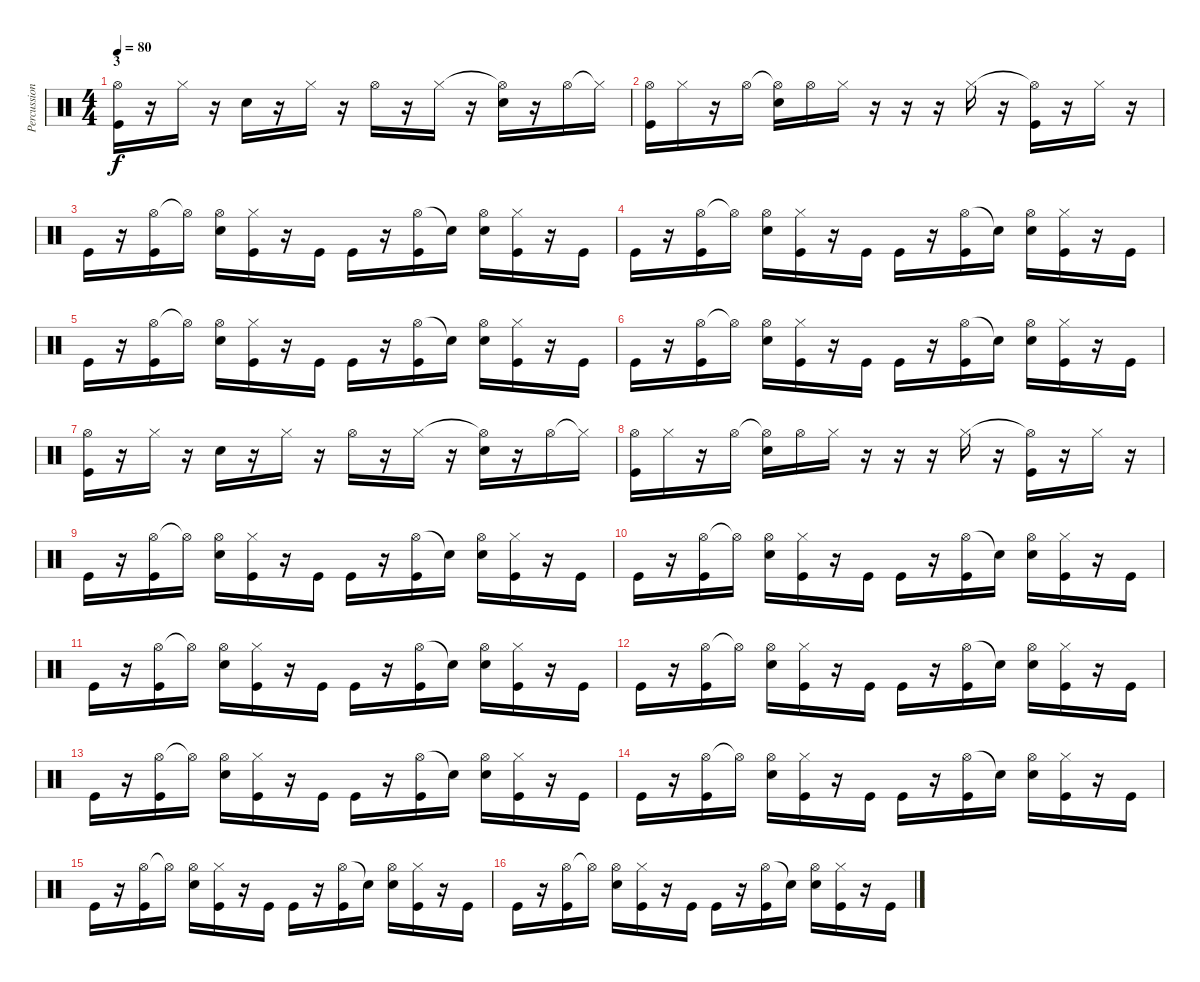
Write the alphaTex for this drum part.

\track ("Percussions" "Percussion") {instrument percussion}
\staff {score}
\articulation defaults
\ts (4 4)
\section ("" "3")
\tempo 80
\clef neutral
\ks c
("Hi-Hat (open)" "Kick (hit)").16{dy f} r.16 "Hi-Hat (closed)".16 r.16 "Electric Snare (hit)".16 r.16 "Hi-Hat (closed)".16 r.16 "Hi-Hat (open)".16 r.16 "Hi-Hat (closed)".16 r.16 ("Hi-Hat (open)"{t} "Electric Snare (hit)").16 r.16 "Hi-Hat (open)".16 "Hi-Hat (closed)"{t}.16 |
("Hi-Hat (open)" "Kick (hit)").16 "Hi-Hat (closed)".16 r.16 "Hi-Hat (open)".16 ("Hi-Hat (open)"{t} "Electric Snare (hit)").16 "Hi-Hat (open)".16 "Hi-Hat (closed)".16 r.16 r.16 r.16 "Hi-Hat (closed)".16 r.16 ("Hi-Hat (open)"{t} "Kick (hit)").16 r.16 "Hi-Hat (closed)".16 r.16 |
"Kick (hit)".16 r.16 ("Hi-Hat (open)" "Kick (hit)").16 "Hi-Hat (open)"{t}.16 ("Hi-Hat (open)" "Electric Snare (hit)").16 ("Hi-Hat (closed)" "Kick (hit)").16 r.16 "Kick (hit)".16 "Kick (hit)".16 r.16 ("Hi-Hat (open)" "Kick (hit)").16 "Snare (hit)"{t}.16 ("Hi-Hat (open)" "Electric Snare (hit)").16 ("Hi-Hat (closed)" "Kick (hit)").16 r.16 "Kick (hit)".16 |
"Kick (hit)".16 r.16 ("Hi-Hat (open)" "Kick (hit)").16 "Hi-Hat (open)"{t}.16 ("Hi-Hat (open)" "Electric Snare (hit)").16 ("Hi-Hat (closed)" "Kick (hit)").16 r.16 "Kick (hit)".16 "Kick (hit)".16 r.16 ("Hi-Hat (open)" "Kick (hit)").16 "Snare (hit)"{t}.16 ("Hi-Hat (open)" "Electric Snare (hit)").16 ("Hi-Hat (closed)" "Kick (hit)").16 r.16 "Kick (hit)".16 |
"Kick (hit)".16 r.16 ("Hi-Hat (open)" "Kick (hit)").16 "Hi-Hat (open)"{t}.16 ("Hi-Hat (open)" "Electric Snare (hit)").16 ("Hi-Hat (closed)" "Kick (hit)").16 r.16 "Kick (hit)".16 "Kick (hit)".16 r.16 ("Hi-Hat (open)" "Kick (hit)").16 "Snare (hit)"{t}.16 ("Hi-Hat (open)" "Electric Snare (hit)").16 ("Hi-Hat (closed)" "Kick (hit)").16 r.16 "Kick (hit)".16 |
"Kick (hit)".16 r.16 ("Hi-Hat (open)" "Kick (hit)").16 "Hi-Hat (open)"{t}.16 ("Hi-Hat (open)" "Electric Snare (hit)").16 ("Hi-Hat (closed)" "Kick (hit)").16 r.16 "Kick (hit)".16 "Kick (hit)".16 r.16 ("Hi-Hat (open)" "Kick (hit)").16 "Snare (hit)"{t}.16 ("Hi-Hat (open)" "Electric Snare (hit)").16 ("Hi-Hat (closed)" "Kick (hit)").16 r.16 "Kick (hit)".16 |
("Hi-Hat (open)" "Kick (hit)").16 r.16 "Hi-Hat (closed)".16 r.16 "Electric Snare (hit)".16 r.16 "Hi-Hat (closed)".16 r.16 "Hi-Hat (open)".16 r.16 "Hi-Hat (closed)".16 r.16 ("Hi-Hat (open)"{t} "Electric Snare (hit)").16 r.16 "Hi-Hat (open)".16 "Hi-Hat (closed)"{t}.16 |
("Hi-Hat (open)" "Kick (hit)").16 "Hi-Hat (closed)".16 r.16 "Hi-Hat (open)".16 ("Hi-Hat (open)"{t} "Electric Snare (hit)").16 "Hi-Hat (open)".16 "Hi-Hat (closed)".16 r.16 r.16 r.16 "Hi-Hat (closed)".16 r.16 ("Hi-Hat (open)"{t} "Kick (hit)").16 r.16 "Hi-Hat (closed)".16 r.16 |
"Kick (hit)".16 r.16 ("Hi-Hat (open)" "Kick (hit)").16 "Hi-Hat (open)"{t}.16 ("Hi-Hat (open)" "Electric Snare (hit)").16 ("Hi-Hat (closed)" "Kick (hit)").16 r.16 "Kick (hit)".16 "Kick (hit)".16 r.16 ("Hi-Hat (open)" "Kick (hit)").16 "Snare (hit)"{t}.16 ("Hi-Hat (open)" "Electric Snare (hit)").16 ("Hi-Hat (closed)" "Kick (hit)").16 r.16 "Kick (hit)".16 |
"Kick (hit)".16 r.16 ("Hi-Hat (open)" "Kick (hit)").16 "Hi-Hat (open)"{t}.16 ("Hi-Hat (open)" "Electric Snare (hit)").16 ("Hi-Hat (closed)" "Kick (hit)").16 r.16 "Kick (hit)".16 "Kick (hit)".16 r.16 ("Hi-Hat (open)" "Kick (hit)").16 "Snare (hit)"{t}.16 ("Hi-Hat (open)" "Electric Snare (hit)").16 ("Hi-Hat (closed)" "Kick (hit)").16 r.16 "Kick (hit)".16 |
"Kick (hit)".16 r.16 ("Hi-Hat (open)" "Kick (hit)").16 "Hi-Hat (open)"{t}.16 ("Hi-Hat (open)" "Electric Snare (hit)").16 ("Hi-Hat (closed)" "Kick (hit)").16 r.16 "Kick (hit)".16 "Kick (hit)".16 r.16 ("Hi-Hat (open)" "Kick (hit)").16 "Snare (hit)"{t}.16 ("Hi-Hat (open)" "Electric Snare (hit)").16 ("Hi-Hat (closed)" "Kick (hit)").16 r.16 "Kick (hit)".16 |
"Kick (hit)".16 r.16 ("Hi-Hat (open)" "Kick (hit)").16 "Hi-Hat (open)"{t}.16 ("Hi-Hat (open)" "Electric Snare (hit)").16 ("Hi-Hat (closed)" "Kick (hit)").16 r.16 "Kick (hit)".16 "Kick (hit)".16 r.16 ("Hi-Hat (open)" "Kick (hit)").16 "Snare (hit)"{t}.16 ("Hi-Hat (open)" "Electric Snare (hit)").16 ("Hi-Hat (closed)" "Kick (hit)").16 r.16 "Kick (hit)".16 |
"Kick (hit)".16 r.16 ("Hi-Hat (open)" "Kick (hit)").16 "Hi-Hat (open)"{t}.16 ("Hi-Hat (open)" "Electric Snare (hit)").16 ("Hi-Hat (closed)" "Kick (hit)").16 r.16 "Kick (hit)".16 "Kick (hit)".16 r.16 ("Hi-Hat (open)" "Kick (hit)").16 "Snare (hit)"{t}.16 ("Hi-Hat (open)" "Electric Snare (hit)").16 ("Hi-Hat (closed)" "Kick (hit)").16 r.16 "Kick (hit)".16 |
"Kick (hit)".16 r.16 ("Hi-Hat (open)" "Kick (hit)").16 "Hi-Hat (open)"{t}.16 ("Hi-Hat (open)" "Electric Snare (hit)").16 ("Hi-Hat (closed)" "Kick (hit)").16 r.16 "Kick (hit)".16 "Kick (hit)".16 r.16 ("Hi-Hat (open)" "Kick (hit)").16 "Snare (hit)"{t}.16 ("Hi-Hat (open)" "Electric Snare (hit)").16 ("Hi-Hat (closed)" "Kick (hit)").16 r.16 "Kick (hit)".16 |
"Kick (hit)".16 r.16 ("Hi-Hat (open)" "Kick (hit)").16 "Hi-Hat (open)"{t}.16 ("Hi-Hat (open)" "Electric Snare (hit)").16 ("Hi-Hat (closed)" "Kick (hit)").16 r.16 "Kick (hit)".16 "Kick (hit)".16 r.16 ("Hi-Hat (open)" "Kick (hit)").16 "Snare (hit)"{t}.16 ("Hi-Hat (open)" "Electric Snare (hit)").16 ("Hi-Hat (closed)" "Kick (hit)").16 r.16 "Kick (hit)".16 |
"Kick (hit)".16 r.16 ("Hi-Hat (open)" "Kick (hit)").16 "Hi-Hat (open)"{t}.16 ("Hi-Hat (open)" "Electric Snare (hit)").16 ("Hi-Hat (closed)" "Kick (hit)").16 r.16 "Kick (hit)".16 "Kick (hit)".16 r.16 ("Hi-Hat (open)" "Kick (hit)").16 "Snare (hit)"{t}.16 ("Hi-Hat (open)" "Electric Snare (hit)").16 ("Hi-Hat (closed)" "Kick (hit)").16 r.16 "Kick (hit)".16
